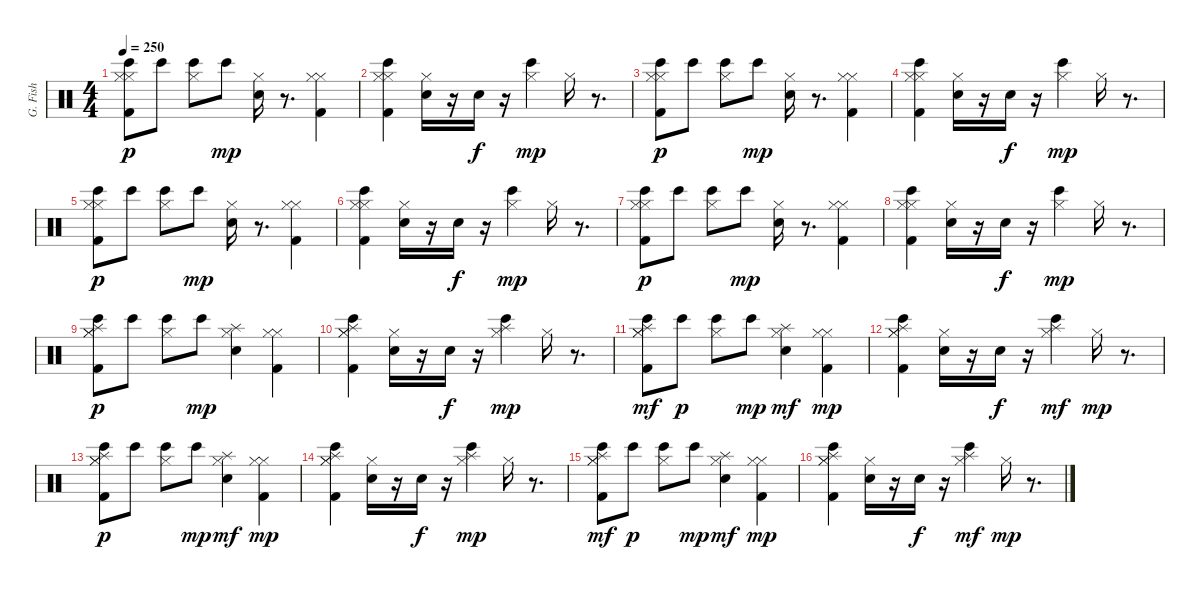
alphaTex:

\track ("G. Fish" "G. Fish") {instrument percussion}
\staff {score}
\articulation defaults
\ts (4 4)
\tempo 250
\clef neutral
\ks c
("Kick (hit) 2" "Hi-Hat (closed)" "Bongo High (hit)" "Hi-Hat (closed)").8{dy p} "Bongo High (hit)".8 ("Hi-Hat (closed)" "Bongo High (hit)").8 "Bongo High (hit)".8{dy mp} ("Electric Snare (hit)" "Hi-Hat (closed)").16 r.8{d} ("Kick (hit) 2" "Hi-Hat (closed)" "Hi-Hat (closed)").4 |
("Kick (hit) 2" "Hi-Hat (closed)" "Hi-Hat (closed)" "Bongo High (hit)").4 ("Electric Snare (hit)" "Hi-Hat (closed)").16 r.16 "Electric Snare (hit)".16{dy f} r.16 ("Hi-Hat (closed)" "Bongo High (hit)").4{dy mp} "Hi-Hat (closed)".16 r.8{d} |
("Hi-Hat (closed)" "Kick (hit) 2" "Hi-Hat (closed)" "Bongo High (hit)").8{dy p} "Bongo High (hit)".8 ("Hi-Hat (closed)" "Bongo High (hit)").8 "Bongo High (hit)".8{dy mp} ("Hi-Hat (closed)" "Electric Snare (hit)").16 r.8{d} ("Hi-Hat (closed)" "Kick (hit) 2" "Hi-Hat (closed)").4 |
("Hi-Hat (closed)" "Kick (hit) 2" "Hi-Hat (closed)" "Bongo High (hit)").4 ("Hi-Hat (closed)" "Electric Snare (hit)").16 r.16 "Electric Snare (hit)".16{dy f} r.16 ("Hi-Hat (closed)" "Bongo High (hit)").4{dy mp} "Hi-Hat (closed)".16 r.8{d} |
("Kick (hit) 2" "Hi-Hat (closed)" "Bongo High (hit)" "Hi-Hat (closed)").8{dy p} "Bongo High (hit)".8 ("Hi-Hat (closed)" "Bongo High (hit)").8 "Bongo High (hit)".8{dy mp} ("Hi-Hat (closed)" "Electric Snare (hit)").16 r.8{d} ("Kick (hit) 2" "Hi-Hat (closed)" "Hi-Hat (closed)").4 |
("Kick (hit) 2" "Hi-Hat (closed)" "Hi-Hat (closed)" "Bongo High (hit)").4 ("Electric Snare (hit)" "Hi-Hat (closed)").16 r.16 "Electric Snare (hit)".16{dy f} r.16 ("Hi-Hat (closed)" "Bongo High (hit)").4{dy mp} "Hi-Hat (closed)".16 r.8{d} |
("Hi-Hat (closed)" "Kick (hit) 2" "Hi-Hat (closed)" "Bongo High (hit)").8{dy p} "Bongo High (hit)".8 ("Hi-Hat (closed)" "Bongo High (hit)").8 "Bongo High (hit)".8{dy mp} ("Hi-Hat (closed)" "Electric Snare (hit)").16 r.8{d} ("Hi-Hat (closed)" "Kick (hit) 2" "Hi-Hat (closed)").4 |
("Hi-Hat (closed)" "Kick (hit) 2" "Hi-Hat (closed)" "Bongo High (hit)").4 ("Electric Snare (hit)" "Hi-Hat (closed)").16 r.16 "Electric Snare (hit)".16{dy f} r.16 ("Bongo High (hit)" "Hi-Hat (closed)").4{dy mp} "Hi-Hat (closed)".16 r.8{d} |
("Splash (hit)" "Kick (hit) 2" "Hi-Hat (closed)" "Bongo High (hit)" "Hi-Hat (closed)").8{dy p} "Bongo High (hit)".8 ("Hi-Hat (closed)" "Bongo High (hit)").8 "Bongo High (hit)".8{dy mp} ("Splash (hit)" "Hi-Hat (closed)" "Electric Snare (hit)").4 ("Kick (hit) 2" "Hi-Hat (closed)" "Hi-Hat (closed)").4 |
("Splash (hit)" "Kick (hit) 2" "Hi-Hat (closed)" "Hi-Hat (closed)" "Bongo High (hit)").4 ("Electric Snare (hit)" "Hi-Hat (closed)").16 r.16 "Electric Snare (hit)".16{dy f} r.16 ("Splash (hit)" "Hi-Hat (closed)" "Bongo High (hit)").4{dy mp} "Hi-Hat (closed)".16 r.8{d} |
("Kick (hit) 2" "Hi-Hat (closed)" "Hi-Hat (closed)" "Bongo High (hit)" "Splash (hit)").8{dy mf} "Bongo High (hit)".8{dy p} ("Hi-Hat (closed)" "Bongo High (hit)").8 "Bongo High (hit)".8{dy mp} ("Hi-Hat (closed)" "Electric Snare (hit)" "Splash (hit)").4{dy mf} ("Kick (hit) 2" "Hi-Hat (closed)" "Hi-Hat (closed)").4{dy mp} |
("Kick (hit) 2" "Hi-Hat (closed)" "Hi-Hat (closed)" "Splash (hit)" "Bongo High (hit)").4 ("Electric Snare (hit)" "Hi-Hat (closed)").16 r.16 "Electric Snare (hit)".16{dy f} r.16 ("Hi-Hat (closed)" "Bongo High (hit)" "Splash (hit)").4{dy mf} "Hi-Hat (closed)".16{dy mp} r.8{d} |
("Kick (hit) 2" "Hi-Hat (closed)" "Splash (hit)" "Bongo High (hit)" "Hi-Hat (closed)").8{dy p} "Bongo High (hit)".8 ("Hi-Hat (closed)" "Bongo High (hit)").8 "Bongo High (hit)".8{dy mp} ("Hi-Hat (closed)" "Electric Snare (hit)" "Splash (hit)").4{dy mf} ("Kick (hit) 2" "Hi-Hat (closed)" "Hi-Hat (closed)").4{dy mp} |
("Splash (hit)" "Hi-Hat (closed)" "Kick (hit) 2" "Hi-Hat (closed)" "Bongo High (hit)").4 ("Hi-Hat (closed)" "Electric Snare (hit)").16 r.16 "Electric Snare (hit)".16{dy f} r.16 ("Splash (hit)" "Hi-Hat (closed)" "Bongo High (hit)").4{dy mp} "Hi-Hat (closed)".16 r.8{d} |
("Hi-Hat (closed)" "Kick (hit) 2" "Hi-Hat (closed)" "Bongo High (hit)" "Splash (hit)").8{dy mf} "Bongo High (hit)".8{dy p} ("Hi-Hat (closed)" "Bongo High (hit)").8 "Bongo High (hit)".8{dy mp} ("Hi-Hat (closed)" "Electric Snare (hit)" "Splash (hit)").4{dy mf} ("Kick (hit) 2" "Hi-Hat (closed)" "Hi-Hat (closed)").4{dy mp} |
("Kick (hit) 2" "Hi-Hat (closed)" "Hi-Hat (closed)" "Splash (hit)" "Bongo High (hit)").4 ("Electric Snare (hit)" "Hi-Hat (closed)").16 r.16 "Electric Snare (hit)".16{dy f} r.16 ("Hi-Hat (closed)" "Bongo High (hit)" "Splash (hit)").4{dy mf} "Hi-Hat (closed)".16{dy mp} r.8{d}
